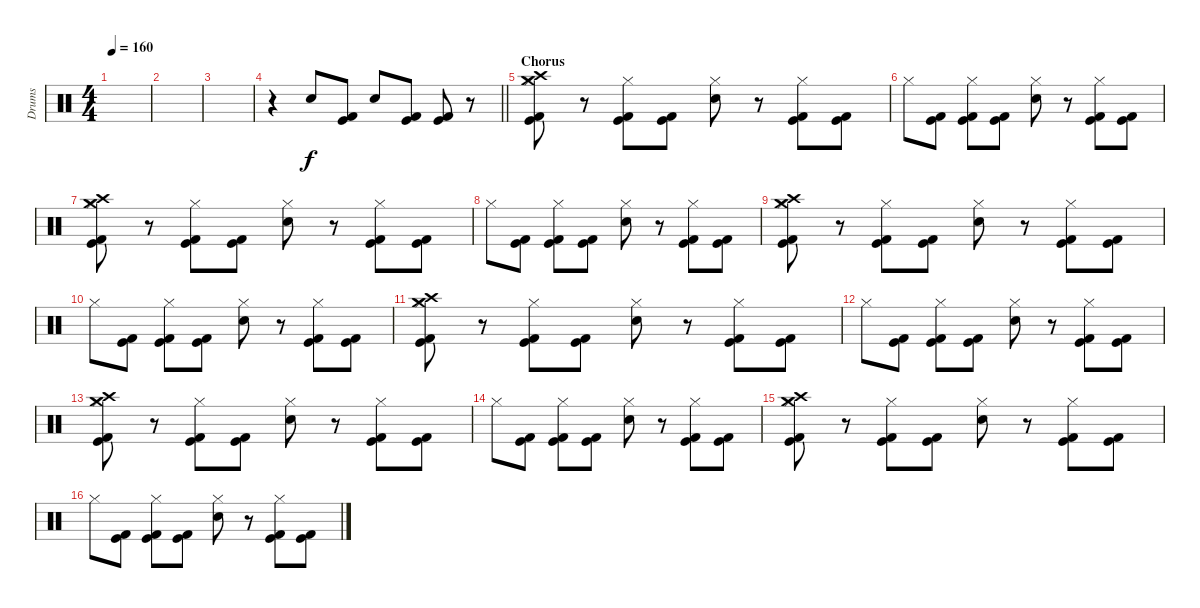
\track ("Drums" "Drums") {instrument percussion}
\staff {score}
\articulation defaults
\ts (4 4)
\tempo 160
\clef neutral
\ks c
|
|
|
\barLineRight lightlight
r.4 "Electric Snare (hit)".8 ("Kick (hit) 2" "Kick (hit)").8 "Electric Snare (hit)".8 ("Kick (hit) 2" "Kick (hit)").8 ("Kick (hit) 2" "Kick (hit)").8 r.8 |
\section ("" "Chorus")
("Kick (hit) 2" "Kick (hit)" "Hi-Hat (closed)" "Crash high (hit)" "Crash medium (hit)").8 r.8 ("Kick (hit) 2" "Kick (hit)" "Hi-Hat (closed)").8 ("Kick (hit) 2" "Kick (hit)").8 ("Electric Snare (hit)" "Hi-Hat (closed)").8 r.8 ("Kick (hit) 2" "Kick (hit)" "Hi-Hat (closed)").8 ("Kick (hit) 2" "Kick (hit)").8 |
"Hi-Hat (closed)".8 ("Kick (hit) 2" "Kick (hit)").8 ("Kick (hit) 2" "Kick (hit)" "Hi-Hat (closed)").8 ("Kick (hit) 2" "Kick (hit)").8 ("Electric Snare (hit)" "Hi-Hat (closed)").8 r.8 ("Kick (hit) 2" "Kick (hit)" "Hi-Hat (closed)").8 ("Kick (hit) 2" "Kick (hit)").8 |
("Kick (hit) 2" "Kick (hit)" "Hi-Hat (closed)" "Crash high (hit)" "Crash medium (hit)").8 r.8 ("Kick (hit) 2" "Kick (hit)" "Hi-Hat (closed)").8 ("Kick (hit) 2" "Kick (hit)").8 ("Electric Snare (hit)" "Hi-Hat (closed)").8 r.8 ("Kick (hit) 2" "Kick (hit)" "Hi-Hat (closed)").8 ("Kick (hit) 2" "Kick (hit)").8 |
"Hi-Hat (closed)".8 ("Kick (hit) 2" "Kick (hit)").8 ("Kick (hit) 2" "Kick (hit)" "Hi-Hat (closed)").8 ("Kick (hit) 2" "Kick (hit)").8 ("Electric Snare (hit)" "Hi-Hat (closed)").8 r.8 ("Kick (hit) 2" "Kick (hit)" "Hi-Hat (closed)").8 ("Kick (hit) 2" "Kick (hit)").8 |
("Kick (hit) 2" "Kick (hit)" "Hi-Hat (closed)" "Crash high (hit)" "Crash medium (hit)").8 r.8 ("Kick (hit) 2" "Kick (hit)" "Hi-Hat (closed)").8 ("Kick (hit) 2" "Kick (hit)").8 ("Electric Snare (hit)" "Hi-Hat (closed)").8 r.8 ("Kick (hit) 2" "Kick (hit)" "Hi-Hat (closed)").8 ("Kick (hit) 2" "Kick (hit)").8 |
"Hi-Hat (closed)".8 ("Kick (hit) 2" "Kick (hit)").8 ("Kick (hit) 2" "Kick (hit)" "Hi-Hat (closed)").8 ("Kick (hit) 2" "Kick (hit)").8 ("Electric Snare (hit)" "Hi-Hat (closed)").8 r.8 ("Kick (hit) 2" "Kick (hit)" "Hi-Hat (closed)").8 ("Kick (hit) 2" "Kick (hit)").8 |
("Kick (hit) 2" "Kick (hit)" "Hi-Hat (closed)" "Crash high (hit)" "Crash medium (hit)").8 r.8 ("Kick (hit) 2" "Kick (hit)" "Hi-Hat (closed)").8 ("Kick (hit) 2" "Kick (hit)").8 ("Electric Snare (hit)" "Hi-Hat (closed)").8 r.8 ("Kick (hit) 2" "Kick (hit)" "Hi-Hat (closed)").8 ("Kick (hit) 2" "Kick (hit)").8 |
"Hi-Hat (closed)".8 ("Kick (hit) 2" "Kick (hit)").8 ("Kick (hit) 2" "Kick (hit)" "Hi-Hat (closed)").8 ("Kick (hit) 2" "Kick (hit)").8 ("Electric Snare (hit)" "Hi-Hat (closed)").8 r.8 ("Kick (hit) 2" "Kick (hit)" "Hi-Hat (closed)").8 ("Kick (hit) 2" "Kick (hit)").8 |
("Kick (hit) 2" "Kick (hit)" "Hi-Hat (closed)" "Crash high (hit)" "Crash medium (hit)").8 r.8 ("Kick (hit) 2" "Kick (hit)" "Hi-Hat (closed)").8 ("Kick (hit) 2" "Kick (hit)").8 ("Electric Snare (hit)" "Hi-Hat (closed)").8 r.8 ("Kick (hit) 2" "Kick (hit)" "Hi-Hat (closed)").8 ("Kick (hit) 2" "Kick (hit)").8 |
"Hi-Hat (closed)".8 ("Kick (hit) 2" "Kick (hit)").8 ("Kick (hit) 2" "Kick (hit)" "Hi-Hat (closed)").8 ("Kick (hit) 2" "Kick (hit)").8 ("Electric Snare (hit)" "Hi-Hat (closed)").8 r.8 ("Kick (hit) 2" "Kick (hit)" "Hi-Hat (closed)").8 ("Kick (hit) 2" "Kick (hit)").8 |
("Kick (hit) 2" "Kick (hit)" "Hi-Hat (closed)" "Crash high (hit)" "Crash medium (hit)").8 r.8 ("Kick (hit) 2" "Kick (hit)" "Hi-Hat (closed)").8 ("Kick (hit) 2" "Kick (hit)").8 ("Electric Snare (hit)" "Hi-Hat (closed)").8 r.8 ("Kick (hit) 2" "Kick (hit)" "Hi-Hat (closed)").8 ("Kick (hit) 2" "Kick (hit)").8 |
"Hi-Hat (closed)".8 ("Kick (hit) 2" "Kick (hit)").8 ("Kick (hit) 2" "Kick (hit)" "Hi-Hat (closed)").8 ("Kick (hit) 2" "Kick (hit)").8 ("Electric Snare (hit)" "Hi-Hat (closed)").8 r.8 ("Kick (hit) 2" "Kick (hit)" "Hi-Hat (closed)").8 ("Kick (hit) 2" "Kick (hit)").8
